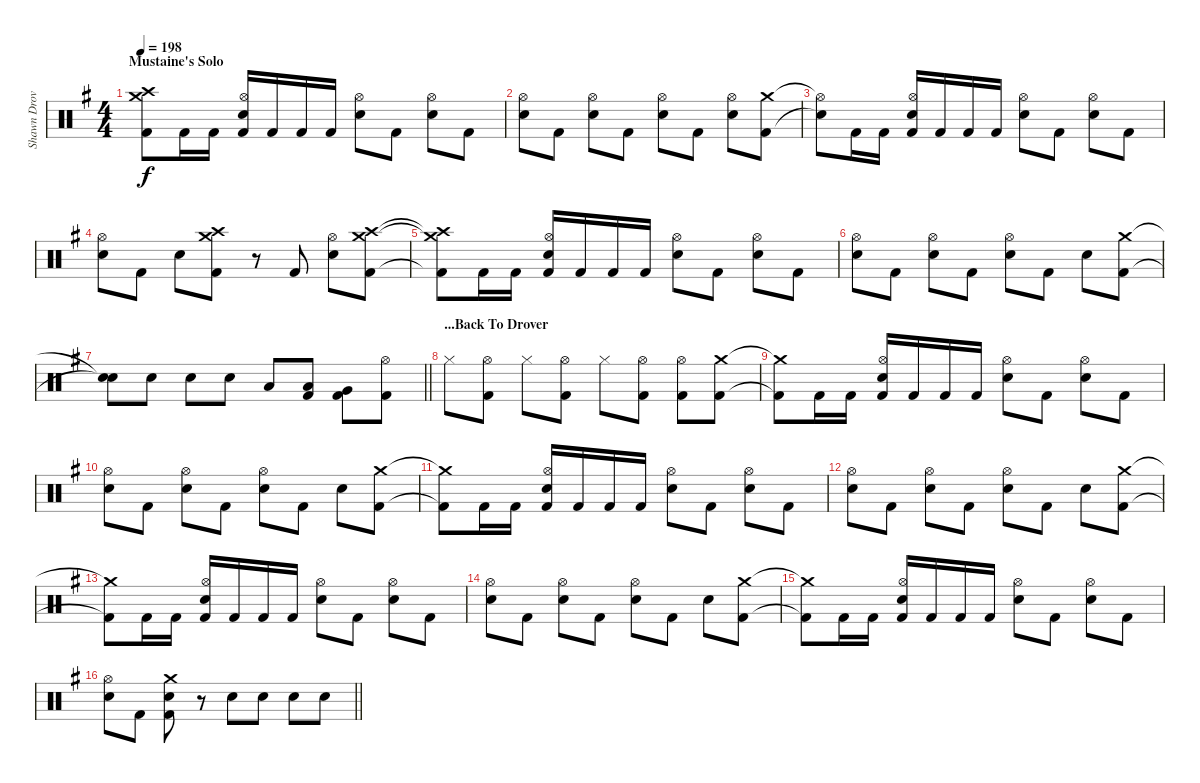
\track ("Shawn Drover" "Shawn Drov") {instrument percussion}
\staff {score}
\articulation defaults
\ts (4 4)
\section ("" "Mustaine's Solo")
\tempo 198
\clef neutral
\ks g
("Crash medium (hit)"{t} "Crash high (hit)"{t} "Kick (hit) 2"{t}).8{dy f} "Kick (hit) 2".16 "Kick (hit) 2".16 ("Hi-Hat (open)" "Snare (hit) 2" "Kick (hit) 2").16 "Kick (hit) 2".16 "Kick (hit) 2".16 "Kick (hit) 2".16 ("Hi-Hat (open)" "Snare (hit) 2").8 "Kick (hit) 2".8 ("Hi-Hat (open)" "Snare (hit) 2").8 "Kick (hit) 2".8 |
("Hi-Hat (open)" "Snare (hit) 2").8 "Kick (hit) 2".8 ("Hi-Hat (open)" "Snare (hit) 2").8 "Kick (hit) 2".8 ("Hi-Hat (open)" "Snare (hit) 2").8 "Kick (hit) 2".8 ("Hi-Hat (open)" "Snare (hit) 2").8 ("Crash medium (hit)" "Kick (hit) 2").8 |
("Hi-Hat (open)"{t} "Snare (hit)"{t}).8 "Kick (hit) 2".16 "Kick (hit) 2".16 ("Hi-Hat (open)" "Snare (hit) 2" "Kick (hit) 2").16 "Kick (hit) 2".16 "Kick (hit) 2".16 "Kick (hit) 2".16 ("Hi-Hat (open)" "Snare (hit) 2").8 "Kick (hit) 2".8 ("Hi-Hat (open)" "Snare (hit) 2").8 "Kick (hit) 2".8 |
("Hi-Hat (open)" "Snare (hit) 2").8 "Kick (hit) 2".8 "Snare (hit) 2".8 ("Crash medium (hit)" "Crash high (hit)" "Kick (hit) 2").8 r.8 "Kick (hit) 2".8 ("Hi-Hat (open)" "Snare (hit) 2").8 ("Crash medium (hit)" "Crash high (hit)" "Kick (hit) 2").8 |
("Crash medium (hit)"{t} "Crash high (hit)"{t} "Kick (hit) 2"{t}).8 "Kick (hit) 2".16 "Kick (hit) 2".16 ("Hi-Hat (open)" "Snare (hit) 2" "Kick (hit) 2").16 "Kick (hit) 2".16 "Kick (hit) 2".16 "Kick (hit) 2".16 ("Hi-Hat (open)" "Snare (hit) 2").8 "Kick (hit) 2".8 ("Hi-Hat (open)" "Snare (hit) 2").8 "Kick (hit) 2".8 |
("Hi-Hat (open)" "Snare (hit) 2").8 "Kick (hit) 2".8 ("Hi-Hat (open)" "Snare (hit) 2").8 "Kick (hit) 2".8 ("Hi-Hat (open)" "Snare (hit) 2").8 "Kick (hit) 2".8 "Snare (hit) 2".8 ("Crash medium (hit)" "Kick (hit) 2").8 |
\barLineRight lightlight
("Snare (hit)"{t} "Snare (hit)"{t}).8 "Snare (hit) 2".8 "Snare (hit) 2".8 "Snare (hit) 2".8 "Low Tom (hit)".8 ("Low Tom (hit)" "Kick (hit) 2").8 ("Very Low Tom (hit)" "Kick (hit) 2").8 ("Hi-Hat (open)" "Kick (hit) 2").8 |
\section ("" "...Back To Drover")
"Hi-Hat (closed)".8 ("Hi-Hat (open)" "Kick (hit) 2").8 "Hi-Hat (closed)".8 ("Hi-Hat (open)" "Kick (hit) 2").8 "Hi-Hat (closed)".8 ("Hi-Hat (open)" "Kick (hit) 2").8 ("Hi-Hat (open)" "Kick (hit) 2").8 ("Crash medium (hit)" "Kick (hit) 2").8 |
("Crash medium (hit)"{t} "Kick (hit) 2"{t}).8 "Kick (hit) 2".16 "Kick (hit) 2".16 ("Hi-Hat (open)" "Snare (hit) 2" "Kick (hit) 2").16 "Kick (hit) 2".16 "Kick (hit) 2".16 "Kick (hit) 2".16 ("Hi-Hat (open)" "Snare (hit) 2").8 "Kick (hit) 2".8 ("Hi-Hat (open)" "Snare (hit) 2").8 "Kick (hit) 2".8 |
("Hi-Hat (open)" "Snare (hit) 2").8 "Kick (hit) 2".8 ("Hi-Hat (open)" "Snare (hit) 2").8 "Kick (hit) 2".8 ("Hi-Hat (open)" "Snare (hit) 2").8 "Kick (hit) 2".8 "Snare (hit) 2".8 ("Crash medium (hit)" "Kick (hit) 2").8 |
("Crash medium (hit)"{t} "Kick (hit) 2"{t}).8 "Kick (hit) 2".16 "Kick (hit) 2".16 ("Hi-Hat (open)" "Snare (hit) 2" "Kick (hit) 2").16 "Kick (hit) 2".16 "Kick (hit) 2".16 "Kick (hit) 2".16 ("Hi-Hat (open)" "Snare (hit) 2").8 "Kick (hit) 2".8 ("Hi-Hat (open)" "Snare (hit) 2").8 "Kick (hit) 2".8 |
("Hi-Hat (open)" "Snare (hit) 2").8 "Kick (hit) 2".8 ("Hi-Hat (open)" "Snare (hit) 2").8 "Kick (hit) 2".8 ("Hi-Hat (open)" "Snare (hit) 2").8 "Kick (hit) 2".8 "Snare (hit) 2".8 ("Crash medium (hit)" "Kick (hit) 2").8 |
("Crash medium (hit)"{t} "Kick (hit) 2"{t}).8 "Kick (hit) 2".16 "Kick (hit) 2".16 ("Hi-Hat (open)" "Snare (hit) 2" "Kick (hit) 2").16 "Kick (hit) 2".16 "Kick (hit) 2".16 "Kick (hit) 2".16 ("Hi-Hat (open)" "Snare (hit) 2").8 "Kick (hit) 2".8 ("Hi-Hat (open)" "Snare (hit) 2").8 "Kick (hit) 2".8 |
("Hi-Hat (open)" "Snare (hit) 2").8 "Kick (hit) 2".8 ("Hi-Hat (open)" "Snare (hit) 2").8 "Kick (hit) 2".8 ("Hi-Hat (open)" "Snare (hit) 2").8 "Kick (hit) 2".8 "Snare (hit) 2".8 ("Crash medium (hit)" "Kick (hit) 2").8 |
("Crash medium (hit)"{t} "Kick (hit) 2"{t}).8 "Kick (hit) 2".16 "Kick (hit) 2".16 ("Hi-Hat (open)" "Snare (hit) 2" "Kick (hit) 2").16 "Kick (hit) 2".16 "Kick (hit) 2".16 "Kick (hit) 2".16 ("Hi-Hat (open)" "Snare (hit) 2").8 "Kick (hit) 2".8 ("Hi-Hat (open)" "Snare (hit) 2").8 "Kick (hit) 2".8 |
\barLineRight lightlight
("Hi-Hat (open)" "Snare (hit) 2").8 "Kick (hit) 2".8 ("Crash medium (hit)" "Snare (hit) 2" "Kick (hit) 2").8 r.8 "Snare (hit) 2".8 "Snare (hit) 2".8 "Snare (hit) 2".8 "Snare (hit) 2".8
